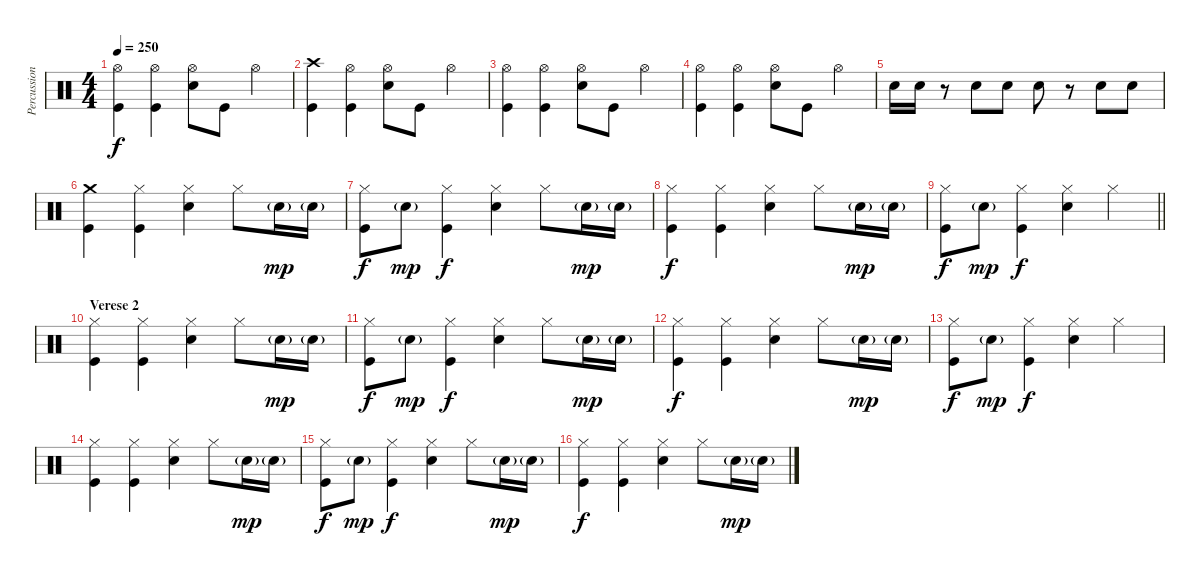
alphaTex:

\track ("Percussion" "Percussion") {instrument percussion}
\staff {score}
\articulation defaults
\ts (4 4)
\tempo 250
\clef neutral
\ks c
("Hi-Hat (open)" "Kick (hit)").4{dy f} ("Hi-Hat (open)" "Kick (hit)").4 ("Hi-Hat (open)" "Snare (hit) 2").8 "Kick (hit)".8 "Hi-Hat (open)".4 |
("Crash high (hit)" "Kick (hit)").4 ("Hi-Hat (open)" "Kick (hit)").4 ("Hi-Hat (open)" "Snare (hit) 2").8 "Kick (hit)".8 "Hi-Hat (open)".4 |
("Hi-Hat (open)" "Kick (hit)").4 ("Hi-Hat (open)" "Kick (hit)").4 ("Hi-Hat (open)" "Snare (hit) 2").8 "Kick (hit)".8 "Hi-Hat (open)".4 |
("Hi-Hat (open)" "Kick (hit)").4 ("Hi-Hat (open)" "Kick (hit)").4 ("Hi-Hat (open)" "Snare (hit) 2").8 "Kick (hit)".8 "Hi-Hat (open)".4 |
"Snare (hit) 2".16 "Snare (hit) 2".16 r.8 "Snare (hit) 2".8 "Snare (hit) 2".8 "Snare (hit) 2".8 r.8 "Snare (hit) 2".8 "Snare (hit) 2".8 |
("Crash medium (hit)" "Kick (hit)").4 ("Hi-Hat (closed)" "Kick (hit)").4 ("Hi-Hat (closed)" "Snare (hit) 2").4 "Hi-Hat (closed)".8 "Snare (hit) 2"{g}.16{dy mp} "Snare (hit) 2"{g}.16 |
("Hi-Hat (closed)" "Kick (hit)").8{dy f} "Snare (hit) 2"{g}.8{dy mp} ("Hi-Hat (closed)" "Kick (hit)").4{dy f} ("Hi-Hat (closed)" "Snare (hit) 2").4 "Hi-Hat (closed)".8 "Snare (hit) 2"{g}.16{dy mp} "Snare (hit) 2"{g}.16 |
("Hi-Hat (closed)" "Kick (hit)").4{dy f} ("Hi-Hat (closed)" "Kick (hit)").4 ("Hi-Hat (closed)" "Snare (hit) 2").4 "Hi-Hat (closed)".8 "Snare (hit) 2"{g}.16{dy mp} "Snare (hit) 2"{g}.16 |
\barLineRight lightlight
("Hi-Hat (closed)" "Kick (hit)").8{dy f} "Snare (hit) 2"{g}.8{dy mp} ("Hi-Hat (closed)" "Kick (hit)").4{dy f} ("Hi-Hat (closed)" "Snare (hit) 2").4 "Hi-Hat (closed)".4 |
\section ("" "Verese 2")
("Hi-Hat (closed)" "Kick (hit)").4 ("Hi-Hat (closed)" "Kick (hit)").4 ("Hi-Hat (closed)" "Snare (hit) 2").4 "Hi-Hat (closed)".8 "Snare (hit) 2"{g}.16{dy mp} "Snare (hit) 2"{g}.16 |
("Hi-Hat (closed)" "Kick (hit)").8{dy f} "Snare (hit) 2"{g}.8{dy mp} ("Hi-Hat (closed)" "Kick (hit)").4{dy f} ("Hi-Hat (closed)" "Snare (hit) 2").4 "Hi-Hat (closed)".8 "Snare (hit) 2"{g}.16{dy mp} "Snare (hit) 2"{g}.16 |
("Hi-Hat (closed)" "Kick (hit)").4{dy f} ("Hi-Hat (closed)" "Kick (hit)").4 ("Hi-Hat (closed)" "Snare (hit) 2").4 "Hi-Hat (closed)".8 "Snare (hit) 2"{g}.16{dy mp} "Snare (hit) 2"{g}.16 |
("Hi-Hat (closed)" "Kick (hit)").8{dy f} "Snare (hit) 2"{g}.8{dy mp} ("Hi-Hat (closed)" "Kick (hit)").4{dy f} ("Hi-Hat (closed)" "Snare (hit) 2").4 "Hi-Hat (closed)".4 |
("Hi-Hat (closed)" "Kick (hit)").4 ("Hi-Hat (closed)" "Kick (hit)").4 ("Hi-Hat (closed)" "Snare (hit) 2").4 "Hi-Hat (closed)".8 "Snare (hit) 2"{g}.16{dy mp} "Snare (hit) 2"{g}.16 |
("Hi-Hat (closed)" "Kick (hit)").8{dy f} "Snare (hit) 2"{g}.8{dy mp} ("Hi-Hat (closed)" "Kick (hit)").4{dy f} ("Hi-Hat (closed)" "Snare (hit) 2").4 "Hi-Hat (closed)".8 "Snare (hit) 2"{g}.16{dy mp} "Snare (hit) 2"{g}.16 |
("Hi-Hat (closed)" "Kick (hit)").4{dy f} ("Hi-Hat (closed)" "Kick (hit)").4 ("Hi-Hat (closed)" "Snare (hit) 2").4 "Hi-Hat (closed)".8 "Snare (hit) 2"{g}.16{dy mp} "Snare (hit) 2"{g}.16
